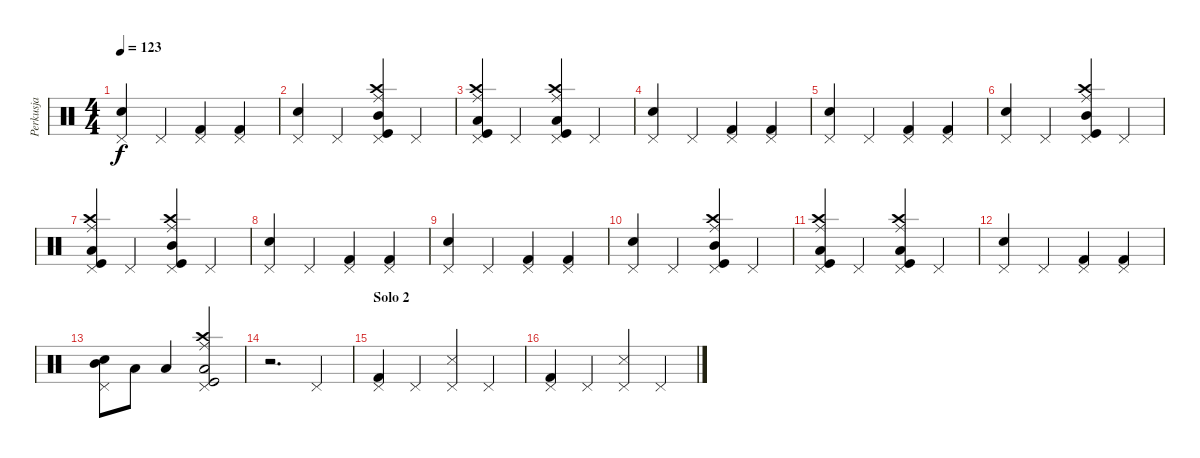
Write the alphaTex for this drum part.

\track ("Perkusja" "Perkusja") {instrument percussion}
\staff {score}
\articulation defaults
\ts (4 4)
\tempo 123
\clef neutral
\ks c
("Snare (hit) 2" "Pedal Hi-Hat (hit)").4{dy f} "Pedal Hi-Hat (hit)".4 ("Kick (hit) 2" "Pedal Hi-Hat (hit)").4 ("Kick (hit) 2" "Pedal Hi-Hat (hit)").4 |
("Snare (hit) 2" "Pedal Hi-Hat (hit)").4 "Pedal Hi-Hat (hit)".4 ("Ride (middle)" "Crash high (hit)" "Mid Tom (hit)" "Kick (hit)" "Pedal Hi-Hat (hit)").4 "Pedal Hi-Hat (hit)".4 |
("Ride (middle)" "Crash high (hit)" "Low Tom (hit)" "Kick (hit)" "Pedal Hi-Hat (hit)").4 "Pedal Hi-Hat (hit)".4 ("Ride (middle)" "Crash high (hit)" "Low Floor Tom (hit)" "Kick (hit)" "Pedal Hi-Hat (hit)").4 "Pedal Hi-Hat (hit)".4 |
("Snare (hit) 2" "Pedal Hi-Hat (hit)").4 "Pedal Hi-Hat (hit)".4 ("Kick (hit) 2" "Pedal Hi-Hat (hit)").4 ("Kick (hit) 2" "Pedal Hi-Hat (hit)").4 |
("Snare (hit) 2" "Pedal Hi-Hat (hit)").4 "Pedal Hi-Hat (hit)".4 ("Kick (hit) 2" "Pedal Hi-Hat (hit)").4 ("Kick (hit) 2" "Pedal Hi-Hat (hit)").4 |
("Snare (hit) 2" "Pedal Hi-Hat (hit)").4 "Pedal Hi-Hat (hit)".4 ("Ride (middle)" "Crash high (hit)" "Mid Tom (hit)" "Kick (hit)" "Pedal Hi-Hat (hit)").4 "Pedal Hi-Hat (hit)".4 |
("Ride (middle)" "Crash high (hit)" "Low Tom (hit)" "Kick (hit)" "Pedal Hi-Hat (hit)").4 "Pedal Hi-Hat (hit)".4 ("Ride (middle)" "Crash high (hit)" "Mid Tom (hit)" "Kick (hit)" "Pedal Hi-Hat (hit)").4 "Pedal Hi-Hat (hit)".4 |
("Snare (hit) 2" "Pedal Hi-Hat (hit)").4 "Pedal Hi-Hat (hit)".4 ("Kick (hit) 2" "Pedal Hi-Hat (hit)").4 ("Kick (hit) 2" "Pedal Hi-Hat (hit)").4 |
("Snare (hit) 2" "Pedal Hi-Hat (hit)").4 "Pedal Hi-Hat (hit)".4 ("Kick (hit) 2" "Pedal Hi-Hat (hit)").4 ("Kick (hit) 2" "Pedal Hi-Hat (hit)").4 |
("Snare (hit) 2" "Pedal Hi-Hat (hit)").4 "Pedal Hi-Hat (hit)".4 ("Ride (middle)" "Crash high (hit)" "Mid Tom (hit)" "Kick (hit)" "Pedal Hi-Hat (hit)").4 "Pedal Hi-Hat (hit)".4 |
("Ride (middle)" "Crash high (hit)" "Low Tom (hit)" "Kick (hit)" "Pedal Hi-Hat (hit)").4 "Pedal Hi-Hat (hit)".4 ("Ride (middle)" "Crash high (hit)" "Low Tom (hit)" "Kick (hit)" "Pedal Hi-Hat (hit)").4 "Pedal Hi-Hat (hit)".4 |
("Snare (hit) 2" "Pedal Hi-Hat (hit)").4 "Pedal Hi-Hat (hit)".4 ("Kick (hit) 2" "Pedal Hi-Hat (hit)").4 ("Kick (hit) 2" "Pedal Hi-Hat (hit)").4 |
("Snare (hit) 2" "Mid Tom (hit)" "Pedal Hi-Hat (hit)").8 "Low Tom (hit)".8 "Low Floor Tom (hit)".4 ("Ride (middle)" "Crash high (hit)" "Low Tom (hit)" "Kick (hit)" "Pedal Hi-Hat (hit)").2 |
r.2{d} "Pedal Hi-Hat (hit)".4 |
\section ("" "Solo 2")
("Kick (hit) 2" "Pedal Hi-Hat (hit)").4 "Pedal Hi-Hat (hit)".4 ("Snare (side stick) 3" "Pedal Hi-Hat (hit)").4 "Pedal Hi-Hat (hit)".4 |
("Kick (hit) 2" "Pedal Hi-Hat (hit)").4 "Pedal Hi-Hat (hit)".4 ("Snare (side stick) 3" "Pedal Hi-Hat (hit)").4 "Pedal Hi-Hat (hit)".4
